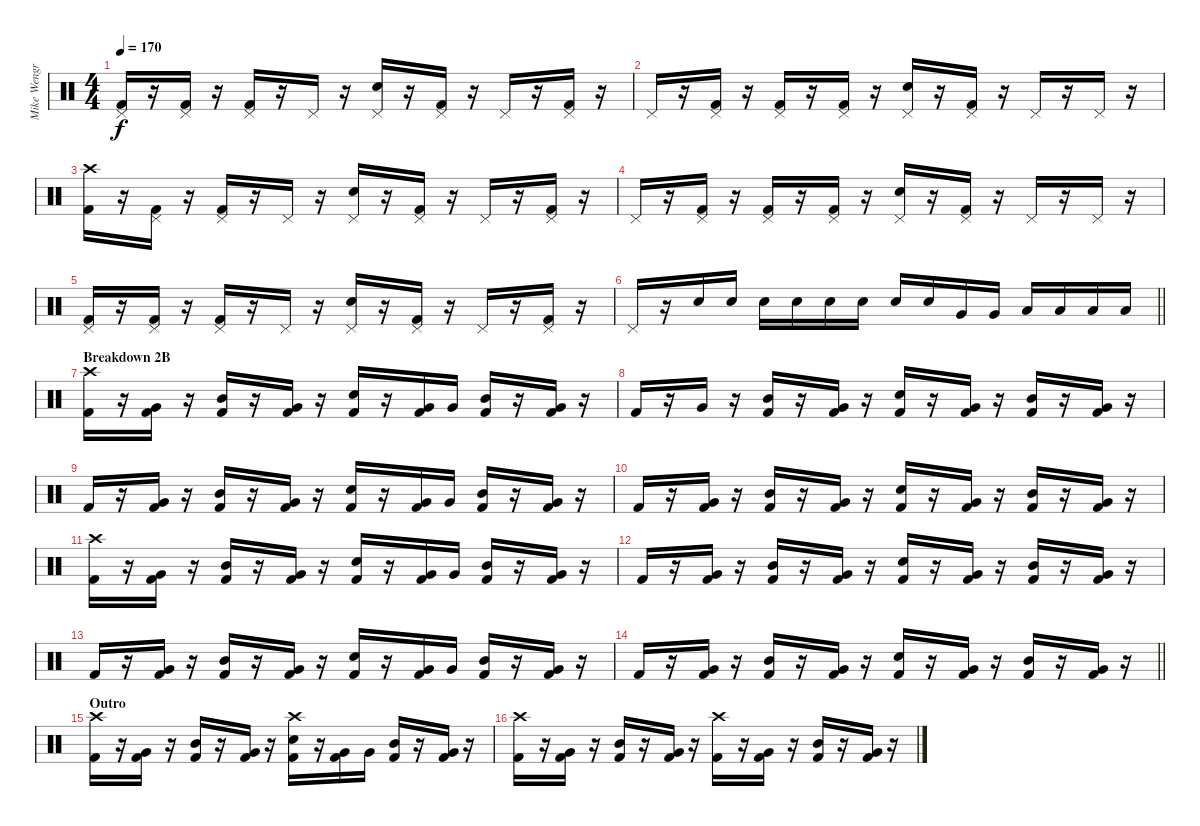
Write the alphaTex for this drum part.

\track ("Mike Wengren" "Mike Wengr") {instrument percussion}
\staff {score}
\articulation defaults
\ts (4 4)
\tempo 170
\clef neutral
\ks c
("Pedal Hi-Hat (hit)" "Kick (hit) 2").16{dy f} r.16 ("Pedal Hi-Hat (hit)" "Kick (hit) 2").16 r.16 ("Pedal Hi-Hat (hit)" "Kick (hit) 2").16 r.16 "Pedal Hi-Hat (hit)".16 r.16 ("Pedal Hi-Hat (hit)" "Snare (hit) 2").16 r.16 ("Pedal Hi-Hat (hit)" "Kick (hit) 2").16 r.16 "Pedal Hi-Hat (hit)".16 r.16 ("Pedal Hi-Hat (hit)" "Kick (hit) 2").16 r.16 |
"Pedal Hi-Hat (hit)".16 r.16 ("Pedal Hi-Hat (hit)" "Kick (hit) 2").16 r.16 ("Pedal Hi-Hat (hit)" "Kick (hit) 2").16 r.16 ("Pedal Hi-Hat (hit)" "Kick (hit) 2").16 r.16 ("Pedal Hi-Hat (hit)" "Snare (hit) 2").16 r.16 ("Pedal Hi-Hat (hit)" "Kick (hit) 2").16 r.16 "Pedal Hi-Hat (hit)".16 r.16 "Pedal Hi-Hat (hit)".16 r.16 |
("Crash high (hit)" "Kick (hit) 2").16 r.16 ("Pedal Hi-Hat (hit)" "Kick (hit) 2").16 r.16 ("Pedal Hi-Hat (hit)" "Kick (hit) 2").16 r.16 "Pedal Hi-Hat (hit)".16 r.16 ("Pedal Hi-Hat (hit)" "Snare (hit) 2").16 r.16 ("Pedal Hi-Hat (hit)" "Kick (hit) 2").16 r.16 "Pedal Hi-Hat (hit)".16 r.16 ("Pedal Hi-Hat (hit)" "Kick (hit) 2").16 r.16 |
"Pedal Hi-Hat (hit)".16 r.16 ("Pedal Hi-Hat (hit)" "Kick (hit) 2").16 r.16 ("Pedal Hi-Hat (hit)" "Kick (hit) 2").16 r.16 ("Pedal Hi-Hat (hit)" "Kick (hit) 2").16 r.16 ("Pedal Hi-Hat (hit)" "Snare (hit) 2").16 r.16 ("Pedal Hi-Hat (hit)" "Kick (hit) 2").16 r.16 "Pedal Hi-Hat (hit)".16 r.16 "Pedal Hi-Hat (hit)".16 r.16 |
("Pedal Hi-Hat (hit)" "Kick (hit) 2").16 r.16 ("Pedal Hi-Hat (hit)" "Kick (hit) 2").16 r.16 ("Pedal Hi-Hat (hit)" "Kick (hit) 2").16 r.16 "Pedal Hi-Hat (hit)".16 r.16 ("Pedal Hi-Hat (hit)" "Snare (hit) 2").16 r.16 ("Pedal Hi-Hat (hit)" "Kick (hit) 2").16 r.16 "Pedal Hi-Hat (hit)".16 r.16 ("Pedal Hi-Hat (hit)" "Kick (hit) 2").16 r.16 |
\barLineRight lightlight "Pedal Hi-Hat (hit)".16
r.16 "Snare (hit) 2".16 "Snare (hit) 2".16 "Snare (hit) 2".16 "Snare (hit) 2".16 "Snare (hit) 2".16 "Snare (hit) 2".16 "Snare (hit) 2".16 "Snare (hit) 2".16 "Very Low Tom (hit)".16 "Very Low Tom (hit)".16 "Low Tom (hit)".16 "Low Tom (hit)".16 "Low Tom (hit)".16 "Low Tom (hit)".16 |
\section ("" "Breakdown 2B")
("Crash high (hit)" "Kick (hit) 2").16 r.16 ("Very Low Tom (hit)" "Kick (hit) 2").16 r.16 ("Mid Tom (hit)" "Kick (hit) 2").16 r.16 ("Very Low Tom (hit)" "Kick (hit) 2").16 r.16 ("Snare (hit) 2" "Kick (hit) 2").16 r.16 ("Very Low Tom (hit)" "Kick (hit) 2").16 "Very Low Tom (hit)".16 ("Mid Tom (hit)" "Kick (hit) 2").16 r.16 ("Very Low Tom (hit)" "Kick (hit) 2").16 r.16 |
"Kick (hit) 2".16 r.16 "Very Low Tom (hit)".16 r.16 ("Mid Tom (hit)" "Kick (hit) 2").16 r.16 ("Very Low Tom (hit)" "Kick (hit) 2").16 r.16 ("Snare (hit) 2" "Kick (hit) 2").16 r.16 ("Very Low Tom (hit)" "Kick (hit) 2").16 r.16 ("Mid Tom (hit)" "Kick (hit) 2").16 r.16 ("Very Low Tom (hit)" "Kick (hit) 2").16 r.16 |
"Kick (hit) 2".16 r.16 ("Very Low Tom (hit)" "Kick (hit) 2").16 r.16 ("Mid Tom (hit)" "Kick (hit) 2").16 r.16 ("Very Low Tom (hit)" "Kick (hit) 2").16 r.16 ("Snare (hit) 2" "Kick (hit) 2").16 r.16 ("Very Low Tom (hit)" "Kick (hit) 2").16 "Very Low Tom (hit)".16 ("Mid Tom (hit)" "Kick (hit) 2").16 r.16 ("Very Low Tom (hit)" "Kick (hit) 2").16 r.16 |
"Kick (hit) 2".16 r.16 ("Very Low Tom (hit)" "Kick (hit) 2").16 r.16 ("Mid Tom (hit)" "Kick (hit) 2").16 r.16 ("Very Low Tom (hit)" "Kick (hit) 2").16 r.16 ("Snare (hit) 2" "Kick (hit) 2").16 r.16 ("Very Low Tom (hit)" "Kick (hit) 2").16 r.16 ("Mid Tom (hit)" "Kick (hit) 2").16 r.16 ("Very Low Tom (hit)" "Kick (hit) 2").16 r.16 |
("Crash high (hit)" "Kick (hit) 2").16 r.16 ("Very Low Tom (hit)" "Kick (hit) 2").16 r.16 ("Mid Tom (hit)" "Kick (hit) 2").16 r.16 ("Very Low Tom (hit)" "Kick (hit) 2").16 r.16 ("Snare (hit) 2" "Kick (hit) 2").16 r.16 ("Very Low Tom (hit)" "Kick (hit) 2").16 "Very Low Tom (hit)".16 ("Mid Tom (hit)" "Kick (hit) 2").16 r.16 ("Very Low Tom (hit)" "Kick (hit) 2").16 r.16 |
"Kick (hit) 2".16 r.16 ("Very Low Tom (hit)" "Kick (hit) 2").16 r.16 ("Mid Tom (hit)" "Kick (hit) 2").16 r.16 ("Very Low Tom (hit)" "Kick (hit) 2").16 r.16 ("Snare (hit) 2" "Kick (hit) 2").16 r.16 ("Very Low Tom (hit)" "Kick (hit) 2").16 r.16 ("Mid Tom (hit)" "Kick (hit) 2").16 r.16 ("Very Low Tom (hit)" "Kick (hit) 2").16 r.16 |
"Kick (hit) 2".16 r.16 ("Very Low Tom (hit)" "Kick (hit) 2").16 r.16 ("Mid Tom (hit)" "Kick (hit) 2").16 r.16 ("Very Low Tom (hit)" "Kick (hit) 2").16 r.16 ("Snare (hit) 2" "Kick (hit) 2").16 r.16 ("Very Low Tom (hit)" "Kick (hit) 2").16 "Very Low Tom (hit)".16 ("Mid Tom (hit)" "Kick (hit) 2").16 r.16 ("Very Low Tom (hit)" "Kick (hit) 2").16 r.16 |
\barLineRight lightlight "Kick (hit) 2".16
r.16 ("Very Low Tom (hit)" "Kick (hit) 2").16 r.16 ("Mid Tom (hit)" "Kick (hit) 2").16 r.16 ("Very Low Tom (hit)" "Kick (hit) 2").16 r.16 ("Snare (hit) 2" "Kick (hit) 2").16 r.16 ("Very Low Tom (hit)" "Kick (hit) 2").16 r.16 ("Mid Tom (hit)" "Kick (hit) 2").16 r.16 ("Very Low Tom (hit)" "Kick (hit) 2").16 r.16 |
\section ("" "Outro")
("Crash high (hit)" "Kick (hit) 2").16 r.16 ("Very Low Tom (hit)" "Kick (hit) 2").16 r.16 ("Mid Tom (hit)" "Kick (hit) 2").16 r.16 ("Very Low Tom (hit)" "Kick (hit) 2").16 r.16 ("Crash high (hit)" "Snare (hit) 2" "Kick (hit) 2").16 r.16 ("Very Low Tom (hit)" "Kick (hit) 2").16 "Very Low Tom (hit)".16 ("Mid Tom (hit)" "Kick (hit) 2").16 r.16 ("Very Low Tom (hit)" "Kick (hit) 2").16 r.16 |
("Crash high (hit)" "Kick (hit) 2").16 r.16 ("Very Low Tom (hit)" "Kick (hit) 2").16 r.16 ("Mid Tom (hit)" "Kick (hit) 2").16 r.16 ("Very Low Tom (hit)" "Kick (hit) 2").16 r.16 ("Crash high (hit)" "Kick (hit) 2").16 r.16 ("Very Low Tom (hit)" "Kick (hit) 2").16 r.16 ("Mid Tom (hit)" "Kick (hit) 2").16 r.16 ("Very Low Tom (hit)" "Kick (hit) 2").16 r.16
